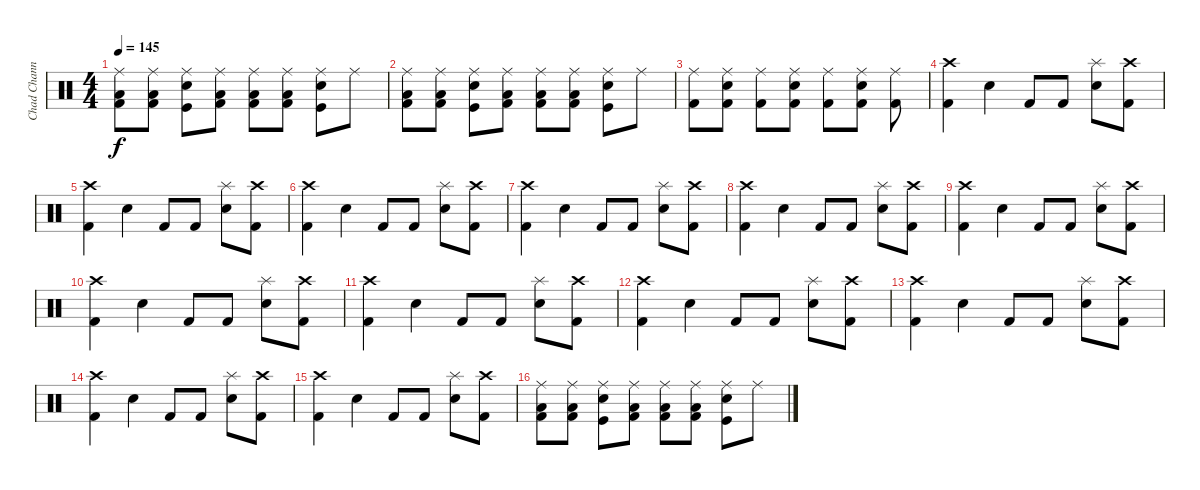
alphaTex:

\track ("Chad Channing" "Chad Chann") {instrument percussion}
\staff {score}
\articulation defaults
\ts (4 4)
\tempo 145
\clef neutral
\ks c
("Ride (middle)" "Low Floor Tom (hit)" "Kick (hit) 2").8{dy f} ("Ride (middle)" "Low Floor Tom (hit)" "Kick (hit) 2").8 ("Snare (hit) 2" "Ride (middle)" "Kick (hit)").8 ("Ride (middle)" "Low Floor Tom (hit)" "Kick (hit) 2").8 ("Ride (middle)" "Low Floor Tom (hit)" "Kick (hit) 2").8 ("Ride (middle)" "Low Floor Tom (hit)" "Kick (hit) 2").8 ("Snare (hit) 2" "Ride (middle)" "Kick (hit)").8 "Ride (middle)".8 |
("Ride (middle)" "Low Floor Tom (hit)" "Kick (hit) 2").8 ("Ride (middle)" "Low Floor Tom (hit)" "Kick (hit) 2").8 ("Snare (hit) 2" "Ride (middle)" "Kick (hit)").8 ("Ride (middle)" "Low Floor Tom (hit)" "Kick (hit) 2").8 ("Ride (middle)" "Low Floor Tom (hit)" "Kick (hit) 2").8 ("Ride (middle)" "Low Floor Tom (hit)" "Kick (hit) 2").8 ("Snare (hit) 2" "Ride (middle)" "Kick (hit)").8 "Ride (middle)".8 |
("Ride (middle)" "Kick (hit) 2").8 ("Snare (hit) 2" "Ride (middle)" "Kick (hit) 2").8 ("Ride (middle)" "Kick (hit) 2").8 ("Snare (hit) 2" "Ride (middle)" "Kick (hit) 2").8 ("Ride (middle)" "Kick (hit) 2").8 ("Snare (hit) 2" "Ride (middle)" "Kick (hit) 2").8 ("Ride (middle)" "Kick (hit) 2").8 |
("Crash high (hit)" "Kick (hit) 2").4 "Snare (hit) 2".4 "Kick (hit) 2".8 "Kick (hit) 2".8 ("Splash (hit)" "Snare (hit) 2").8 ("Crash high (hit)" "Kick (hit) 2").8 |
("Crash high (hit)" "Kick (hit) 2").4 "Snare (hit) 2".4 "Kick (hit) 2".8 "Kick (hit) 2".8 ("Splash (hit)" "Snare (hit) 2").8 ("Crash high (hit)" "Kick (hit) 2").8 |
("Crash high (hit)" "Kick (hit) 2").4 "Snare (hit) 2".4 "Kick (hit) 2".8 "Kick (hit) 2".8 ("Splash (hit)" "Snare (hit) 2").8 ("Crash high (hit)" "Kick (hit) 2").8 |
("Crash high (hit)" "Kick (hit) 2").4 "Snare (hit) 2".4 "Kick (hit) 2".8 "Kick (hit) 2".8 ("Splash (hit)" "Snare (hit) 2").8 ("Crash high (hit)" "Kick (hit) 2").8 |
("Crash high (hit)" "Kick (hit) 2").4 "Snare (hit) 2".4 "Kick (hit) 2".8 "Kick (hit) 2".8 ("Splash (hit)" "Snare (hit) 2").8 ("Crash high (hit)" "Kick (hit) 2").8 |
("Crash high (hit)" "Kick (hit) 2").4 "Snare (hit) 2".4 "Kick (hit) 2".8 "Kick (hit) 2".8 ("Splash (hit)" "Snare (hit) 2").8 ("Crash high (hit)" "Kick (hit) 2").8 |
("Crash high (hit)" "Kick (hit) 2").4 "Snare (hit) 2".4 "Kick (hit) 2".8 "Kick (hit) 2".8 ("Splash (hit)" "Snare (hit) 2").8 ("Crash high (hit)" "Kick (hit) 2").8 |
("Crash high (hit)" "Kick (hit) 2").4 "Snare (hit) 2".4 "Kick (hit) 2".8 "Kick (hit) 2".8 ("Splash (hit)" "Snare (hit) 2").8 ("Crash high (hit)" "Kick (hit) 2").8 |
("Crash high (hit)" "Kick (hit) 2").4 "Snare (hit) 2".4 "Kick (hit) 2".8 "Kick (hit) 2".8 ("Splash (hit)" "Snare (hit) 2").8 ("Crash high (hit)" "Kick (hit) 2").8 |
("Crash high (hit)" "Kick (hit) 2").4 "Snare (hit) 2".4 "Kick (hit) 2".8 "Kick (hit) 2".8 ("Splash (hit)" "Snare (hit) 2").8 ("Crash high (hit)" "Kick (hit) 2").8 |
("Crash high (hit)" "Kick (hit) 2").4 "Snare (hit) 2".4 "Kick (hit) 2".8 "Kick (hit) 2".8 ("Splash (hit)" "Snare (hit) 2").8 ("Crash high (hit)" "Kick (hit) 2").8 |
("Crash high (hit)" "Kick (hit) 2").4 "Snare (hit) 2".4 "Kick (hit) 2".8 "Kick (hit) 2".8 ("Splash (hit)" "Snare (hit) 2").8 ("Crash high (hit)" "Kick (hit) 2").8 |
("Ride (middle)" "Low Floor Tom (hit)" "Kick (hit) 2").8 ("Ride (middle)" "Low Floor Tom (hit)" "Kick (hit) 2").8 ("Snare (hit) 2" "Ride (middle)" "Kick (hit)").8 ("Ride (middle)" "Low Floor Tom (hit)" "Kick (hit) 2").8 ("Ride (middle)" "Low Floor Tom (hit)" "Kick (hit) 2").8 ("Ride (middle)" "Low Floor Tom (hit)" "Kick (hit) 2").8 ("Snare (hit) 2" "Ride (middle)" "Kick (hit)").8 "Ride (middle)".8
